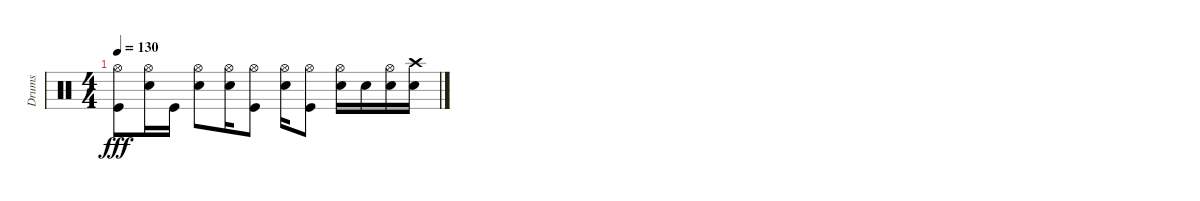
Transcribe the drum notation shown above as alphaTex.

\track ("Drums" "Drums") {instrument percussion}
\staff {score}
\articulation defaults
\ts (4 4)
\tempo 130
\clef neutral
\ks c
("Kick (hit)" "Hi-Hat (open)").8{dy fff} ("Snare (hit) 2" "Hi-Hat (open)").16 "Kick (hit)".16 ("Snare (hit) 2" "Hi-Hat (open)").8 ("Snare (hit) 2" "Hi-Hat (open)").16 ("Kick (hit)" "Hi-Hat (open)").8 ("Snare (hit) 2" "Hi-Hat (open)").16 ("Kick (hit)" "Hi-Hat (open)").8 ("Snare (hit) 2" "Hi-Hat (open)").16 "Snare (hit) 2".16 ("Snare (hit) 2" "Hi-Hat (open)").16 ("Crash high (hit)" "Snare (hit) 2").16
